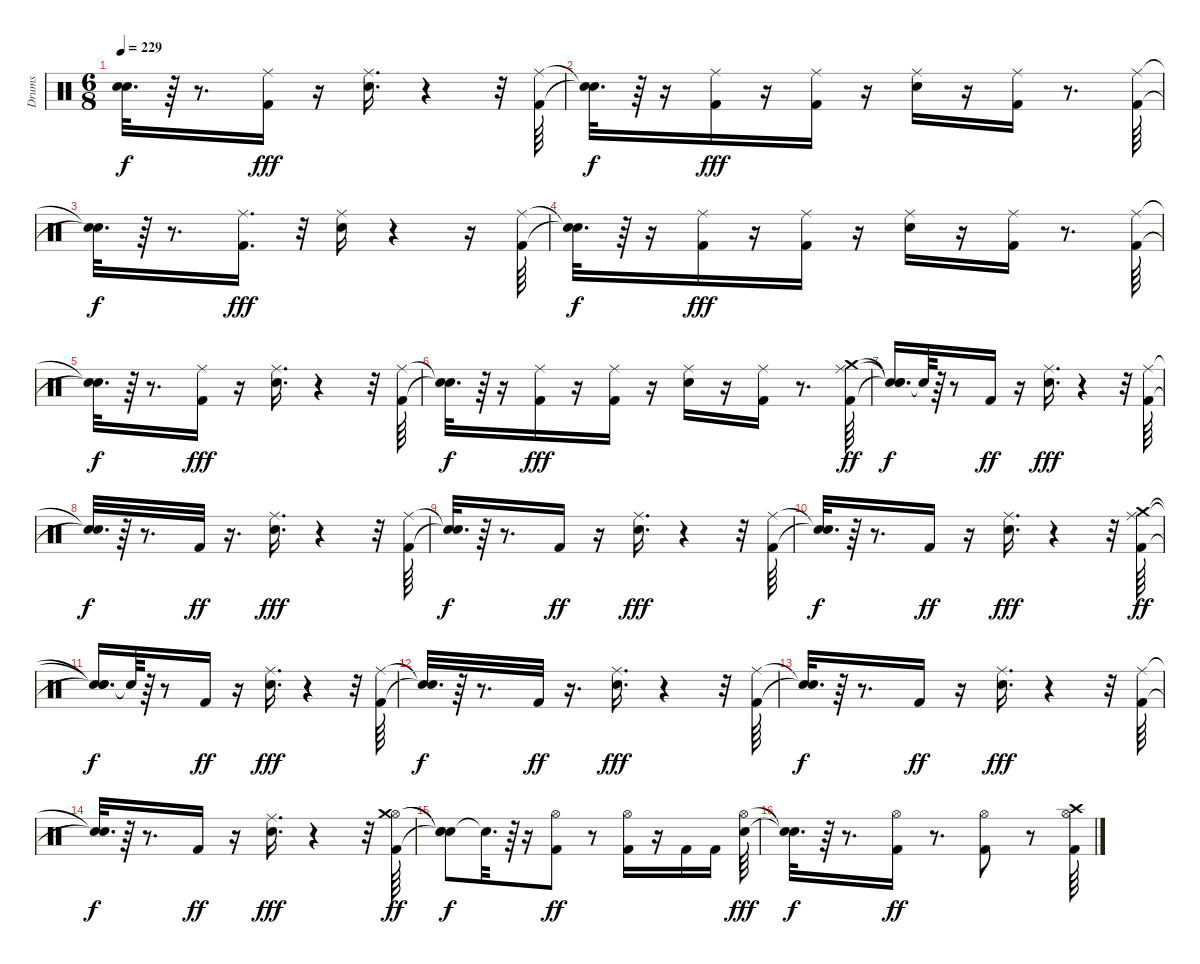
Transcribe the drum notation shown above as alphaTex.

\track ("Drums" "Drums") {instrument percussion}
\staff {score}
\articulation defaults
\ts (6 8)
\tempo 229
\clef neutral
\ks c
("Snare (hit)"{t} "Snare (hit)"{t}).32{d dy f} r.64 r.8{d} ("Kick (hit) 2" "Ride (middle)").16{dy fff} r.16 ("Snare (hit) 2" "Ride (middle)").16{d} r.4 r.32 ("Kick (hit) 2" "Ride (middle)").64 |
("Snare (hit)"{t} "Snare (hit)"{t}).32{d dy f} r.64 r.16 ("Kick (hit) 2" "Ride (middle)").16{dy fff} r.16 ("Kick (hit) 2" "Ride (middle)").16 r.16 ("Snare (hit) 2" "Ride (middle)").16 r.16 ("Kick (hit) 2" "Ride (middle)").16 r.8{d} ("Kick (hit) 2" "Ride (middle)").64 |
("Snare (hit)"{t} "Snare (hit)"{t}).32{d dy f} r.64 r.8{d} ("Kick (hit) 2" "Ride (middle)").16{d dy fff} r.32 ("Snare (hit) 2" "Ride (middle)").16 r.4 r.16 ("Kick (hit) 2" "Ride (middle)").64 |
("Snare (hit)"{t} "Snare (hit)"{t}).32{d dy f} r.64 r.16 ("Kick (hit) 2" "Ride (middle)").16{dy fff} r.16 ("Kick (hit) 2" "Ride (middle)").16 r.16 ("Snare (hit) 2" "Ride (middle)").16 r.16 ("Kick (hit) 2" "Ride (middle)").16 r.8{d} ("Kick (hit) 2" "Ride (middle)").64 |
("Snare (hit)"{t} "Snare (hit)"{t}).32{d dy f} r.64 r.8{d} ("Kick (hit) 2" "Ride (middle)").16{dy fff} r.16 ("Snare (hit) 2" "Ride (middle)").16{d} r.4 r.32 ("Kick (hit) 2" "Ride (middle)").64 |
("Snare (hit)"{t} "Snare (hit)"{t}).32{d dy f} r.64 r.16 ("Kick (hit) 2" "Ride (middle)").16{dy fff} r.16 ("Kick (hit) 2" "Ride (middle)").16 r.16 ("Snare (hit) 2" "Ride (middle)").16 r.16 ("Kick (hit) 2" "Ride (middle)").16 r.8{d} ("Kick (hit) 2" "Ride (middle)" "Crash medium (hit)").64{dy ff} |
("Snare (hit)"{t} "Snare (hit)"{t} "Snare (hit)"{t}).16{d dy f} "Snare (hit)"{t}.64 r.64 r.8 "Kick (hit) 2".16{dy ff} r.16 ("Snare (hit) 2" "Ride (middle)").16{d dy fff} r.4 r.32 ("Kick (hit) 2" "Ride (middle)").64 |
("Snare (hit)"{t} "Snare (hit)"{t}).32{d dy f} r.64 r.8{d} "Kick (hit) 2".32{dy ff} r.16{d} ("Snare (hit) 2" "Ride (middle)").16{d dy fff} r.4 r.32 ("Kick (hit) 2" "Ride (middle)").64 |
("Snare (hit)"{t} "Snare (hit)"{t}).32{d dy f} r.64 r.8{d} "Kick (hit) 2".16{dy ff} r.16 ("Snare (hit) 2" "Ride (middle)").16{d dy fff} r.4 r.32 ("Kick (hit) 2" "Ride (middle)").64 |
("Snare (hit)"{t} "Snare (hit)"{t}).32{d dy f} r.64 r.8{d} "Kick (hit) 2".16{dy ff} r.16 ("Snare (hit) 2" "Ride (middle)").16{d dy fff} r.4 r.32 ("Kick (hit) 2" "Ride (middle)" "Crash medium (hit)").64{dy ff} |
("Snare (hit)"{t} "Snare (hit)"{t} "Snare (hit)"{t}).16{d dy f} "Snare (hit)"{t}.64 r.64 r.8 "Kick (hit) 2".16{dy ff} r.16 ("Snare (hit) 2" "Ride (middle)").16{d dy fff} r.4 r.32 ("Kick (hit) 2" "Ride (middle)").64 |
("Snare (hit)"{t} "Snare (hit)"{t}).32{d dy f} r.64 r.8{d} "Kick (hit) 2".32{dy ff} r.16{d} ("Snare (hit) 2" "Ride (middle)").16{d dy fff} r.4 r.32 ("Kick (hit) 2" "Ride (middle)").64 |
("Snare (hit)"{t} "Snare (hit)"{t}).32{d dy f} r.64 r.8{d} "Kick (hit) 2".16{dy ff} r.16 ("Snare (hit) 2" "Ride (middle)").16{d dy fff} r.4 r.32 ("Kick (hit) 2" "Ride (middle)").64 |
("Snare (hit)"{t} "Snare (hit)"{t}).32{d dy f} r.64 r.8{d} "Kick (hit) 2".16{dy ff} r.16 ("Snare (hit) 2" "Ride (middle)").16{d dy fff} r.4 r.32 ("Kick (hit) 2" "Hi-Hat (open)" "Crash medium (hit)").64{dy ff} |
("Snare (hit)"{t} "Snare (hit)"{t} "Snare (hit)"{t}).8{dy f} "Snare (hit)"{t}.32{d} r.64 r.16 ("Kick (hit) 2" "Hi-Hat (open)").8{dy ff} r.8 ("Kick (hit) 2" "Hi-Hat (open)").16 r.16 "Kick (hit) 2".16 "Kick (hit) 2".16 ("Snare (hit) 2" "Hi-Hat (open)").64{dy fff} |
("Snare (hit)"{t} "Snare (hit)"{t}).32{d dy f} r.64 r.8{d} ("Kick (hit) 2" "Hi-Hat (open)").16{dy ff} r.8{d} ("Kick (hit) 2" "Hi-Hat (open)").8 r.8 ("Kick (hit) 2" "Hi-Hat (open)" "Crash high (hit)").64
